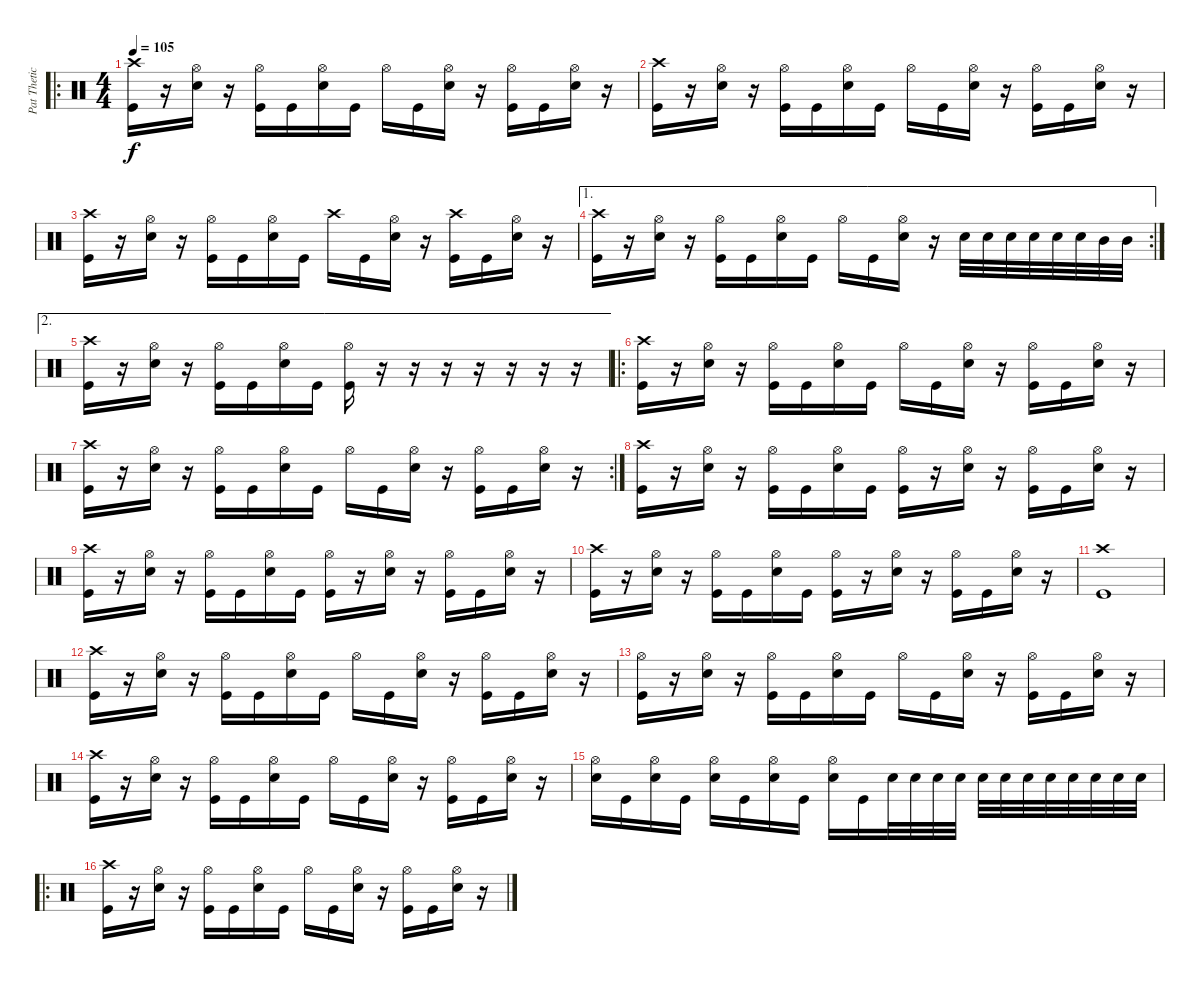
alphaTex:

\track ("Pat Thetic" "Pat Thetic") {instrument percussion}
\staff {score}
\articulation defaults
\ro
\ts (4 4)
\tempo 105
\clef neutral
\ks c
("Crash high (hit)" "Kick (hit)").16{dy f} r.16 ("Hi-Hat (open)" "Snare (hit) 2").16 r.16 ("Hi-Hat (open)" "Kick (hit)").16 "Kick (hit)".16 ("Hi-Hat (open)" "Snare (hit) 2").16 "Kick (hit)".16 "Hi-Hat (open)".16 "Kick (hit)".16 ("Hi-Hat (open)" "Snare (hit) 2").16 r.16 ("Hi-Hat (open)" "Kick (hit)").16 "Kick (hit)".16 ("Hi-Hat (open)" "Snare (hit) 2").16 r.16 |
("Crash high (hit)" "Kick (hit)").16 r.16 ("Hi-Hat (open)" "Snare (hit) 2").16 r.16 ("Hi-Hat (open)" "Kick (hit)").16 "Kick (hit)".16 ("Hi-Hat (open)" "Snare (hit) 2").16 "Kick (hit)".16 "Hi-Hat (open)".16 "Kick (hit)".16 ("Hi-Hat (open)" "Snare (hit) 2").16 r.16 ("Hi-Hat (open)" "Kick (hit)").16 "Kick (hit)".16 ("Hi-Hat (open)" "Snare (hit) 2").16 r.16 |
("Crash high (hit)" "Kick (hit)").16 r.16 ("Hi-Hat (open)" "Snare (hit) 2").16 r.16 ("Hi-Hat (open)" "Kick (hit)").16 "Kick (hit)".16 ("Hi-Hat (open)" "Snare (hit) 2").16 "Kick (hit)".16 "Crash high (hit)".16 "Kick (hit)".16 ("Hi-Hat (open)" "Snare (hit) 2").16 r.16 ("Crash high (hit)" "Kick (hit)").16 "Kick (hit)".16 ("Hi-Hat (open)" "Snare (hit) 2").16 r.16 |
\ae 1
\rc 2
("Crash high (hit)" "Kick (hit)").16 r.16 ("Hi-Hat (open)" "Snare (hit) 2").16 r.16 ("Hi-Hat (open)" "Kick (hit)").16 "Kick (hit)".16 ("Hi-Hat (open)" "Snare (hit) 2").16 "Kick (hit)".16 "Hi-Hat (open)".16 "Kick (hit)".16 ("Hi-Hat (open)" "Snare (hit) 2").16 r.16 "Snare (hit) 2".32 "Snare (hit) 2".32 "Snare (hit) 2".32 "Electric Snare (hit)".32 "Electric Snare (hit)".32 "Electric Snare (hit)".32 "Mid Tom (hit)".32 "Mid Tom (hit)".32 |
\ae 2
("Crash high (hit)" "Kick (hit)").16 r.16 ("Hi-Hat (open)" "Snare (hit) 2").16 r.16 ("Hi-Hat (open)" "Kick (hit)").16 "Kick (hit)".16 ("Hi-Hat (open)" "Snare (hit) 2").16 "Kick (hit)".16 ("Hi-Hat (open)" "Kick (hit)").16 r.16 r.16 r.16 r.16 r.16 r.16 r.16 |
\ro
("Crash high (hit)" "Kick (hit)").16 r.16 ("Hi-Hat (open)" "Snare (hit) 2").16 r.16 ("Hi-Hat (open)" "Kick (hit)").16 "Kick (hit)".16 ("Hi-Hat (open)" "Snare (hit) 2").16 "Kick (hit)".16 "Hi-Hat (open)".16 "Kick (hit)".16 ("Hi-Hat (open)" "Snare (hit) 2").16 r.16 ("Hi-Hat (open)" "Kick (hit)").16 "Kick (hit)".16 ("Hi-Hat (open)" "Snare (hit) 2").16 r.16 |
\rc 2
("Crash high (hit)" "Kick (hit)").16 r.16 ("Hi-Hat (open)" "Snare (hit) 2").16 r.16 ("Hi-Hat (open)" "Kick (hit)").16 "Kick (hit)".16 ("Hi-Hat (open)" "Snare (hit) 2").16 "Kick (hit)".16 "Hi-Hat (open)".16 "Kick (hit)".16 ("Hi-Hat (open)" "Snare (hit) 2").16 r.16 ("Hi-Hat (open)" "Kick (hit)").16 "Kick (hit)".16 ("Hi-Hat (open)" "Snare (hit) 2").16 r.16 |
("Crash high (hit)" "Kick (hit)").16 r.16 ("Hi-Hat (open)" "Snare (hit) 2").16 r.16 ("Hi-Hat (open)" "Kick (hit)").16 "Kick (hit)".16 ("Hi-Hat (open)" "Snare (hit) 2").16 "Kick (hit)".16 ("Hi-Hat (open)" "Kick (hit)").16 r.16 ("Hi-Hat (open)" "Snare (hit) 2").16 r.16 ("Hi-Hat (open)" "Kick (hit)").16 "Kick (hit)".16 ("Hi-Hat (open)" "Snare (hit) 2").16 r.16 |
("Crash high (hit)" "Kick (hit)").16 r.16 ("Hi-Hat (open)" "Snare (hit) 2").16 r.16 ("Hi-Hat (open)" "Kick (hit)").16 "Kick (hit)".16 ("Hi-Hat (open)" "Snare (hit) 2").16 "Kick (hit)".16 ("Hi-Hat (open)" "Kick (hit)").16 r.16 ("Hi-Hat (open)" "Snare (hit) 2").16 r.16 ("Hi-Hat (open)" "Kick (hit)").16 "Kick (hit)".16 ("Hi-Hat (open)" "Snare (hit) 2").16 r.16 |
("Crash high (hit)" "Kick (hit)").16 r.16 ("Hi-Hat (open)" "Snare (hit) 2").16 r.16 ("Hi-Hat (open)" "Kick (hit)").16 "Kick (hit)".16 ("Hi-Hat (open)" "Snare (hit) 2").16 "Kick (hit)".16 ("Hi-Hat (open)" "Kick (hit)").16 r.16 ("Hi-Hat (open)" "Snare (hit) 2").16 r.16 ("Hi-Hat (open)" "Kick (hit)").16 "Kick (hit)".16 ("Hi-Hat (open)" "Snare (hit) 2").16 r.16 |
("Crash high (hit)" "Kick (hit)").1 |
("Crash high (hit)" "Kick (hit)").16 r.16 ("Hi-Hat (open)" "Snare (hit) 2").16 r.16 ("Hi-Hat (open)" "Kick (hit)").16 "Kick (hit)".16 ("Hi-Hat (open)" "Snare (hit) 2").16 "Kick (hit)".16 "Hi-Hat (open)".16 "Kick (hit)".16 ("Hi-Hat (open)" "Snare (hit) 2").16 r.16 ("Hi-Hat (open)" "Kick (hit)").16 "Kick (hit)".16 ("Hi-Hat (open)" "Snare (hit) 2").16 r.16 |
("Hi-Hat (open)" "Kick (hit)").16 r.16 ("Hi-Hat (open)" "Snare (hit) 2").16 r.16 ("Hi-Hat (open)" "Kick (hit)").16 "Kick (hit)".16 ("Hi-Hat (open)" "Snare (hit) 2").16 "Kick (hit)".16 "Hi-Hat (open)".16 "Kick (hit)".16 ("Hi-Hat (open)" "Snare (hit) 2").16 r.16 ("Hi-Hat (open)" "Kick (hit)").16 "Kick (hit)".16 ("Hi-Hat (open)" "Snare (hit) 2").16 r.16 |
("Crash high (hit)" "Kick (hit)").16 r.16 ("Hi-Hat (open)" "Snare (hit) 2").16 r.16 ("Hi-Hat (open)" "Kick (hit)").16 "Kick (hit)".16 ("Hi-Hat (open)" "Snare (hit) 2").16 "Kick (hit)".16 "Hi-Hat (open)".16 "Kick (hit)".16 ("Hi-Hat (open)" "Snare (hit) 2").16 r.16 ("Hi-Hat (open)" "Kick (hit)").16 "Kick (hit)".16 ("Hi-Hat (open)" "Snare (hit) 2").16 r.16 |
("Snare (hit) 2" "Hi-Hat (open)").16 "Kick (hit)".16 ("Hi-Hat (open)" "Snare (hit) 2").16 "Kick (hit)".16 ("Hi-Hat (open)" "Snare (hit) 2").16 "Kick (hit)".16 ("Hi-Hat (open)" "Snare (hit) 2").16 "Kick (hit)".16 ("Hi-Hat (open)" "Snare (hit) 2").16 "Kick (hit)".16 "Snare (hit) 2".32 "Snare (hit) 2".32 "Snare (hit) 2".32 "Snare (hit) 2".32 "Snare (hit) 2".32 "Snare (hit) 2".32 "Snare (hit) 2".32 "Snare (hit) 2".32 "Snare (hit) 2".32 "Snare (hit) 2".32 "Snare (hit) 2".32 "Snare (hit) 2".32 |
\ro
("Crash high (hit)" "Kick (hit)").16 r.16 ("Hi-Hat (open)" "Snare (hit) 2").16 r.16 ("Hi-Hat (open)" "Kick (hit)").16 "Kick (hit)".16 ("Hi-Hat (open)" "Snare (hit) 2").16 "Kick (hit)".16 "Hi-Hat (open)".16 "Kick (hit)".16 ("Hi-Hat (open)" "Snare (hit) 2").16 r.16 ("Hi-Hat (open)" "Kick (hit)").16 "Kick (hit)".16 ("Hi-Hat (open)" "Snare (hit) 2").16 r.16
